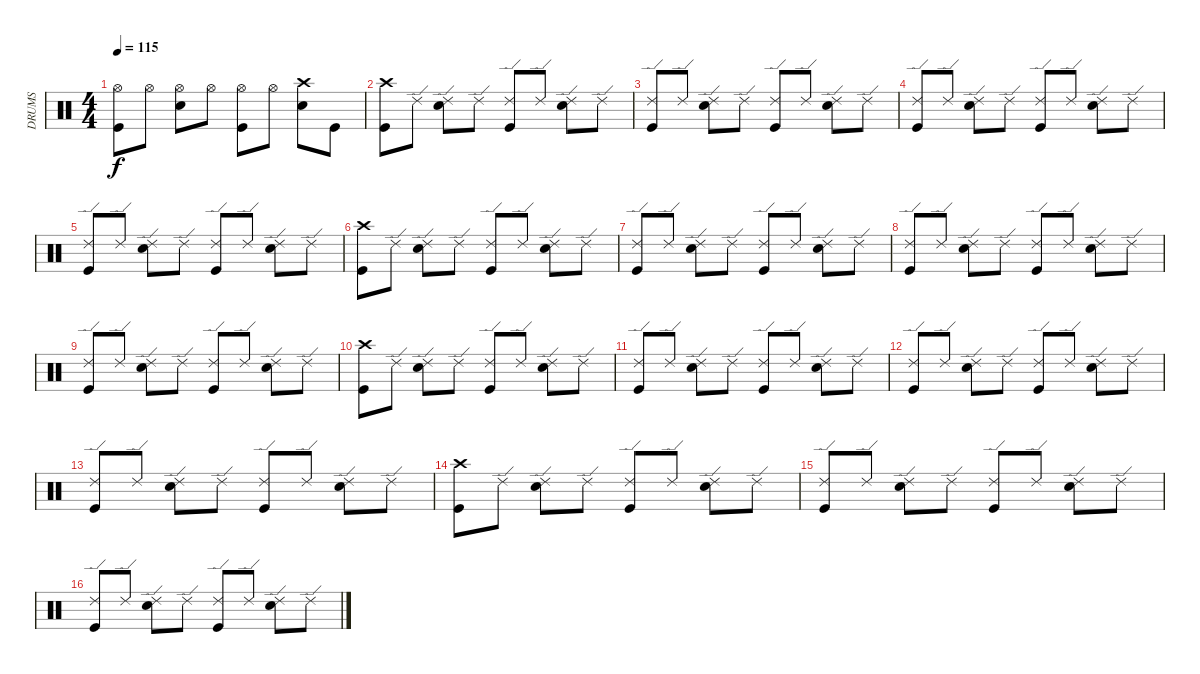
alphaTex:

\track ("DRUMS" "DRUMS") {instrument percussion}
\staff {score}
\articulation defaults
\ts (4 4)
\tempo 115
\clef neutral
\ks c
("Hi-Hat (open)" "Kick (hit)").8{dy f} "Hi-Hat (open)".8 ("Hi-Hat (open)" "Snare (hit) 2").8 "Hi-Hat (open)".8 ("Hi-Hat (open)" "Kick (hit)").8 "Hi-Hat (open)".8 ("Crash high (hit)" "Snare (hit) 2").8 "Kick (hit)".8 |
("Crash high (hit)" "Kick (hit)").8 "Ride (edge) 2".8 ("Ride (edge) 2" "Snare (hit) 2").8 "Ride (edge) 2".8 ("Ride (edge) 2" "Kick (hit)").8 "Ride (edge) 2".8 ("Ride (edge) 2" "Snare (hit) 2").8 "Ride (edge) 2".8 |
("Ride (edge) 2" "Kick (hit)").8 "Ride (edge) 2".8 ("Ride (edge) 2" "Snare (hit) 2").8 "Ride (edge) 2".8 ("Ride (edge) 2" "Kick (hit)").8 "Ride (edge) 2".8 ("Ride (edge) 2" "Snare (hit) 2").8 "Ride (edge) 2".8 |
("Ride (edge) 2" "Kick (hit)").8 "Ride (edge) 2".8 ("Ride (edge) 2" "Snare (hit) 2").8 "Ride (edge) 2".8 ("Ride (edge) 2" "Kick (hit)").8 "Ride (edge) 2".8 ("Ride (edge) 2" "Snare (hit) 2").8 "Ride (edge) 2".8 |
("Ride (edge) 2" "Kick (hit)").8 "Ride (edge) 2".8 ("Ride (edge) 2" "Snare (hit) 2").8 "Ride (edge) 2".8 ("Ride (edge) 2" "Kick (hit)").8 "Ride (edge) 2".8 ("Ride (edge) 2" "Snare (hit) 2").8 "Ride (edge) 2".8 |
("Crash high (hit)" "Kick (hit)").8 "Ride (edge) 2".8 ("Ride (edge) 2" "Snare (hit) 2").8 "Ride (edge) 2".8 ("Ride (edge) 2" "Kick (hit)").8 "Ride (edge) 2".8 ("Ride (edge) 2" "Snare (hit) 2").8 "Ride (edge) 2".8 |
("Ride (edge) 2" "Kick (hit)").8 "Ride (edge) 2".8 ("Ride (edge) 2" "Snare (hit) 2").8 "Ride (edge) 2".8 ("Ride (edge) 2" "Kick (hit)").8 "Ride (edge) 2".8 ("Ride (edge) 2" "Snare (hit) 2").8 "Ride (edge) 2".8 |
("Ride (edge) 2" "Kick (hit)").8 "Ride (edge) 2".8 ("Ride (edge) 2" "Snare (hit) 2").8 "Ride (edge) 2".8 ("Ride (edge) 2" "Kick (hit)").8 "Ride (edge) 2".8 ("Ride (edge) 2" "Snare (hit) 2").8 "Ride (edge) 2".8 |
("Ride (edge) 2" "Kick (hit)").8 "Ride (edge) 2".8 ("Ride (edge) 2" "Snare (hit) 2").8 "Ride (edge) 2".8 ("Ride (edge) 2" "Kick (hit)").8 "Ride (edge) 2".8 ("Ride (edge) 2" "Snare (hit) 2").8 "Ride (edge) 2".8 |
("Crash high (hit)" "Kick (hit)").8 "Ride (edge) 2".8 ("Ride (edge) 2" "Snare (hit) 2").8 "Ride (edge) 2".8 ("Ride (edge) 2" "Kick (hit)").8 "Ride (edge) 2".8 ("Ride (edge) 2" "Snare (hit) 2").8 "Ride (edge) 2".8 |
("Ride (edge) 2" "Kick (hit)").8 "Ride (edge) 2".8 ("Ride (edge) 2" "Snare (hit) 2").8 "Ride (edge) 2".8 ("Ride (edge) 2" "Kick (hit)").8 "Ride (edge) 2".8 ("Ride (edge) 2" "Snare (hit) 2").8 "Ride (edge) 2".8 |
("Ride (edge) 2" "Kick (hit)").8 "Ride (edge) 2".8 ("Ride (edge) 2" "Snare (hit) 2").8 "Ride (edge) 2".8 ("Ride (edge) 2" "Kick (hit)").8 "Ride (edge) 2".8 ("Ride (edge) 2" "Snare (hit) 2").8 "Ride (edge) 2".8 |
("Ride (edge) 2" "Kick (hit)").8 "Ride (edge) 2".8 ("Ride (edge) 2" "Snare (hit) 2").8 "Ride (edge) 2".8 ("Ride (edge) 2" "Kick (hit)").8 "Ride (edge) 2".8 ("Ride (edge) 2" "Snare (hit) 2").8 "Ride (edge) 2".8 |
("Crash high (hit)" "Kick (hit)").8 "Ride (edge) 2".8 ("Ride (edge) 2" "Snare (hit) 2").8 "Ride (edge) 2".8 ("Ride (edge) 2" "Kick (hit)").8 "Ride (edge) 2".8 ("Ride (edge) 2" "Snare (hit) 2").8 "Ride (edge) 2".8 |
("Ride (edge) 2" "Kick (hit)").8 "Ride (edge) 2".8 ("Ride (edge) 2" "Snare (hit) 2").8 "Ride (edge) 2".8 ("Ride (edge) 2" "Kick (hit)").8 "Ride (edge) 2".8 ("Ride (edge) 2" "Snare (hit) 2").8 "Ride (edge) 2".8 |
("Ride (edge) 2" "Kick (hit)").8 "Ride (edge) 2".8 ("Ride (edge) 2" "Snare (hit) 2").8 "Ride (edge) 2".8 ("Ride (edge) 2" "Kick (hit)").8 "Ride (edge) 2".8 ("Ride (edge) 2" "Snare (hit) 2").8 "Ride (edge) 2".8
